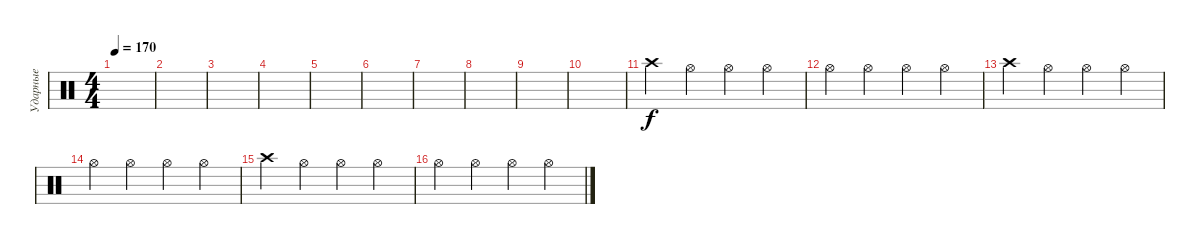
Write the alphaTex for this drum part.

\track ("Ударные" "Ударные") {instrument percussion}
\staff {score}
\articulation defaults
\ts (4 4)
\tempo 170
\clef neutral
\ks c
|
|
|
|
|
|
|
|
|
|
"Crash high (hit)".4 "Hi-Hat (open)".4 "Hi-Hat (open)".4 "Hi-Hat (open)".4 |
"Hi-Hat (open)".4 "Hi-Hat (open)".4 "Hi-Hat (open)".4 "Hi-Hat (open)".4 |
"Crash high (hit)".4 "Hi-Hat (open)".4 "Hi-Hat (open)".4 "Hi-Hat (open)".4 |
"Hi-Hat (open)".4 "Hi-Hat (open)".4 "Hi-Hat (open)".4 "Hi-Hat (open)".4 |
"Crash high (hit)".4 "Hi-Hat (open)".4 "Hi-Hat (open)".4 "Hi-Hat (open)".4 |
"Hi-Hat (open)".4 "Hi-Hat (open)".4 "Hi-Hat (open)".4 "Hi-Hat (open)".4
